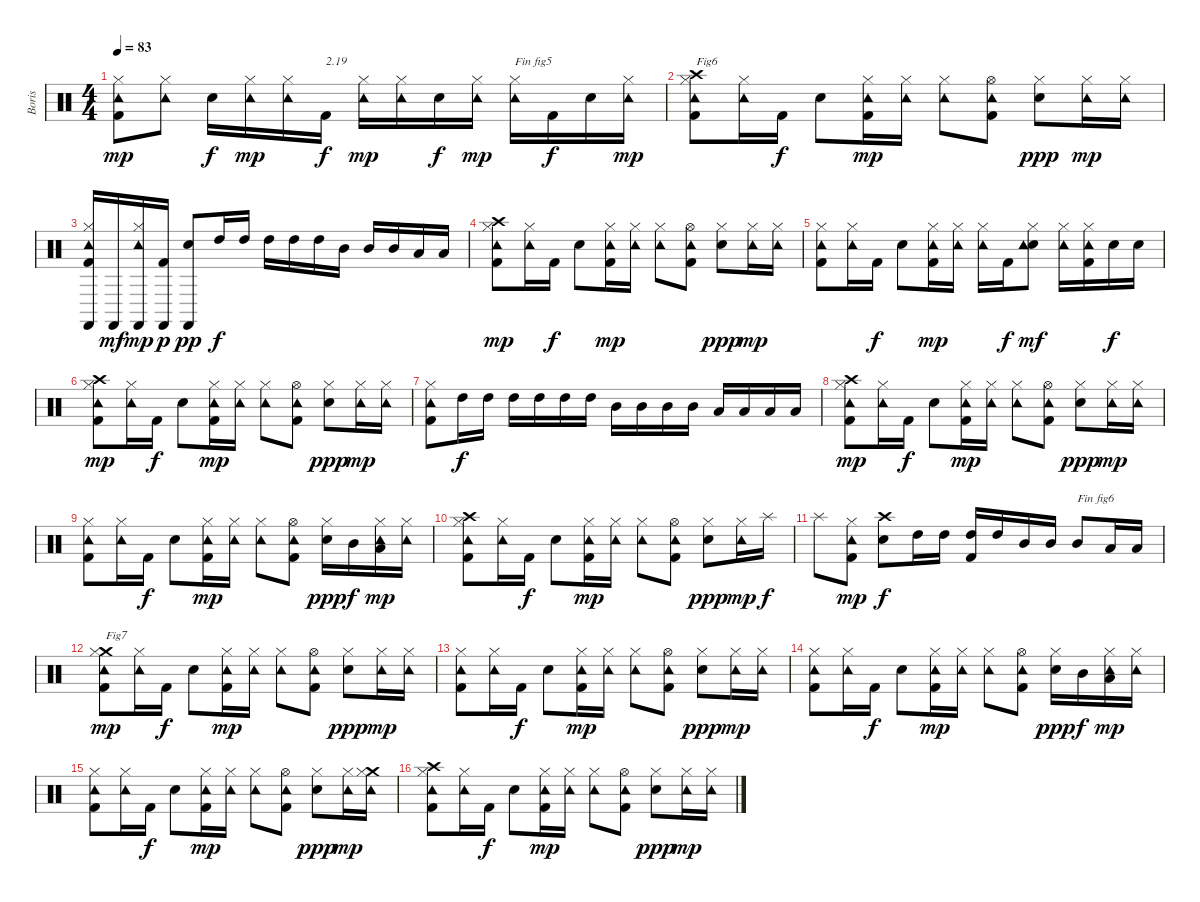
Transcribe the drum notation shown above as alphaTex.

\track ("Boris" "Boris") {instrument percussion}
\staff {score}
\articulation defaults
\ts (4 4)
\tempo 83
\clef neutral
\ks c
("Kick (hit) 2" "Tambourine (hit)" "Hi-Hat (closed)").8{dy mp} ("Tambourine (hit)" "Hi-Hat (closed)").8 "Electric Snare (hit)".16{dy f} ("Tambourine (hit)" "Hi-Hat (closed)").16{dy mp} ("Tambourine (hit)" "Hi-Hat (closed)").16 "Kick (hit) 2".16{txt "2.19" dy f} ("Tambourine (hit)" "Hi-Hat (closed)").16{dy mp} ("Tambourine (hit)" "Hi-Hat (closed)").16 "Electric Snare (hit)".16{dy f} ("Tambourine (hit)" "Hi-Hat (closed)").16{dy mp} ("Tambourine (hit)" "Hi-Hat (closed)").16{txt "Fin fig5"} "Kick (hit) 2".16{dy f} "Electric Snare (hit)".16 ("Tambourine (hit)" "Hi-Hat (closed)").16{dy mp} |
("Kick (hit) 2" "Crash high (hit)" "Tambourine (hit)" "Hi-Hat (closed)").8{txt "Fig6"} ("Tambourine (hit)" "Hi-Hat (closed)").16 "Kick (hit) 2".16{dy f} "Electric Snare (hit)".8 ("Kick (hit) 2" "Tambourine (hit)" "Hi-Hat (closed)").16{dy mp} ("Tambourine (hit)" "Hi-Hat (closed)").16 ("Tambourine (hit)" "Hi-Hat (closed)").8 ("Kick (hit) 2" "Tambourine (hit)" "Hi-Hat (open)").8 ("Electric Snare (hit)" "Hi-Hat (closed)").8{dy ppp} ("Tambourine (hit)" "Hi-Hat (closed)").16{dy mp} ("Tambourine (hit)" "Hi-Hat (closed)").16 |
("Kick (hit) 2" "Castanets (hit)" "Tambourine (hit)" "Hi-Hat (closed)").16 "Castanets (hit)".16{dy mf} ("Castanets (hit)" "Tambourine (hit)" "Hi-Hat (closed)").16{dy mp} ("Kick (hit) 2" "Castanets (hit)").16{dy p} ("Electric Snare (hit)" "Castanets (hit)").8{dy pp} "High Tom (hit)".16{dy f} "High Tom (hit)".16 "High Tom (hit)".16 "High Tom (hit)".16 "High Tom (hit)".16 "Mid Tom (hit)".16 "Mid Tom (hit)".16 "Mid Tom (hit)".16 "Low Tom (hit)".16 "Low Tom (hit)".16 |
("Kick (hit) 2" "Crash high (hit)" "Tambourine (hit)" "Hi-Hat (closed)").8{dy mp} ("Tambourine (hit)" "Hi-Hat (closed)").16 "Kick (hit) 2".16{dy f} "Electric Snare (hit)".8 ("Kick (hit) 2" "Tambourine (hit)" "Hi-Hat (closed)").16{dy mp} ("Tambourine (hit)" "Hi-Hat (closed)").16 ("Tambourine (hit)" "Hi-Hat (closed)").8 ("Kick (hit) 2" "Tambourine (hit)" "Hi-Hat (open)").8 ("Electric Snare (hit)" "Hi-Hat (closed)").8{dy ppp} ("Tambourine (hit)" "Hi-Hat (closed)").16{dy mp} ("Tambourine (hit)" "Hi-Hat (closed)").16 |
("Kick (hit) 2" "Tambourine (hit)" "Hi-Hat (closed)").8 ("Tambourine (hit)" "Hi-Hat (closed)").16 "Kick (hit) 2".16{dy f} "Electric Snare (hit)".8 ("Kick (hit) 2" "Tambourine (hit)" "Hi-Hat (closed)").16{dy mp} ("Tambourine (hit)" "Hi-Hat (closed)").16 ("Tambourine (hit)" "Hi-Hat (closed)").16 "Kick (hit) 2".16{dy f} ("Electric Snare (hit)" "Tambourine (hit)" "Hi-Hat (closed)").8{dy mf} ("Tambourine (hit)" "Hi-Hat (closed)").16 ("Kick (hit) 2" "Tambourine (hit)" "Hi-Hat (closed)").16 "Electric Snare (hit)".16{dy f} "Electric Snare (hit)".16 |
("Kick (hit) 2" "Crash high (hit)" "Tambourine (hit)" "Hi-Hat (closed)").8{dy mp} ("Tambourine (hit)" "Hi-Hat (closed)").16 "Kick (hit) 2".16{dy f} "Electric Snare (hit)".8 ("Kick (hit) 2" "Tambourine (hit)" "Hi-Hat (closed)").16{dy mp} ("Tambourine (hit)" "Hi-Hat (closed)").16 ("Tambourine (hit)" "Hi-Hat (closed)").8 ("Kick (hit) 2" "Tambourine (hit)" "Hi-Hat (open)").8 ("Electric Snare (hit)" "Hi-Hat (closed)").8{dy ppp} ("Tambourine (hit)" "Hi-Hat (closed)").16{dy mp} ("Tambourine (hit)" "Hi-Hat (closed)").16 |
("Kick (hit) 2" "Tambourine (hit)" "Hi-Hat (closed)").8 "High Tom (hit)".16{dy f} "High Tom (hit)".16 "High Tom (hit)".16 "High Tom (hit)".16 "High Tom (hit)".16 "High Tom (hit)".16 "Mid Tom (hit)".16 "Mid Tom (hit)".16 "Mid Tom (hit)".16 "Mid Tom (hit)".16 "Low Tom (hit)".16 "Low Tom (hit)".16 "Low Tom (hit)".16 "Low Tom (hit)".16 |
("Kick (hit) 2" "Crash high (hit)" "Tambourine (hit)" "Hi-Hat (closed)").8{dy mp} ("Tambourine (hit)" "Hi-Hat (closed)").16 "Kick (hit) 2".16{dy f} "Electric Snare (hit)".8 ("Kick (hit) 2" "Tambourine (hit)" "Hi-Hat (closed)").16{dy mp} ("Tambourine (hit)" "Hi-Hat (closed)").16 ("Tambourine (hit)" "Hi-Hat (closed)").8 ("Kick (hit) 2" "Tambourine (hit)" "Hi-Hat (open)").8 ("Electric Snare (hit)" "Hi-Hat (closed)").8{dy ppp} ("Tambourine (hit)" "Hi-Hat (closed)").16{dy mp} ("Tambourine (hit)" "Hi-Hat (closed)").16 |
("Kick (hit) 2" "Tambourine (hit)" "Hi-Hat (closed)").8 ("Tambourine (hit)" "Hi-Hat (closed)").16 "Kick (hit) 2".16{dy f} "Electric Snare (hit)".8 ("Kick (hit) 2" "Tambourine (hit)" "Hi-Hat (closed)").16{dy mp} ("Tambourine (hit)" "Hi-Hat (closed)").16 ("Tambourine (hit)" "Hi-Hat (closed)").8 ("Kick (hit) 2" "Tambourine (hit)" "Hi-Hat (open)").8 ("Electric Snare (hit)" "Hi-Hat (closed)").16{dy ppp} "Mid Tom (hit)".16{dy f} ("Low Tom (hit)" "Tambourine (hit)" "Hi-Hat (closed)").16{dy mp} ("Tambourine (hit)" "Hi-Hat (closed)").16 |
("Kick (hit) 2" "Crash high (hit)" "Tambourine (hit)" "Hi-Hat (closed)").8 ("Tambourine (hit)" "Hi-Hat (closed)").16 "Kick (hit) 2".16{dy f} "Electric Snare (hit)".8 ("Kick (hit) 2" "Tambourine (hit)" "Hi-Hat (closed)").16{dy mp} ("Tambourine (hit)" "Hi-Hat (closed)").16 ("Tambourine (hit)" "Hi-Hat (closed)").8 ("Kick (hit) 2" "Tambourine (hit)" "Hi-Hat (open)").8 ("Electric Snare (hit)" "Hi-Hat (closed)").8{dy ppp} ("Tambourine (hit)" "Hi-Hat (closed)").16{dy mp} "Splash (hit)".16{dy f} |
"Splash (hit)".8 ("Kick (hit) 2" "Tambourine (hit)" "Hi-Hat (closed)").8{dy mp} ("Electric Snare (hit)" "Crash high (hit)").8{dy f} "High Tom (hit)".16 "High Tom (hit)".16 ("Kick (hit) 2" "High Tom (hit)").16 "High Tom (hit)".16 "Mid Tom (hit)".16 "Mid Tom (hit)".16 "Mid Tom (hit)".8{txt "Fin fig6"} "Low Tom (hit)".16 "Low Tom (hit)".16 |
("Kick (hit) 2" "Crash medium (hit)" "Tambourine (hit)" "Hi-Hat (closed)").8{txt "Fig7" dy mp} ("Tambourine (hit)" "Hi-Hat (closed)").16 "Kick (hit) 2".16{dy f} "Electric Snare (hit)".8 ("Kick (hit) 2" "Tambourine (hit)" "Hi-Hat (closed)").16{dy mp} ("Tambourine (hit)" "Hi-Hat (closed)").16 ("Tambourine (hit)" "Hi-Hat (closed)").8 ("Kick (hit) 2" "Tambourine (hit)" "Hi-Hat (open)").8 ("Electric Snare (hit)" "Hi-Hat (closed)").8{dy ppp} ("Tambourine (hit)" "Hi-Hat (closed)").16{dy mp} ("Tambourine (hit)" "Hi-Hat (closed)").16 |
("Kick (hit) 2" "Tambourine (hit)" "Hi-Hat (closed)").8 ("Tambourine (hit)" "Hi-Hat (closed)").16 "Kick (hit) 2".16{dy f} "Electric Snare (hit)".8 ("Kick (hit) 2" "Tambourine (hit)" "Hi-Hat (closed)").16{dy mp} ("Tambourine (hit)" "Hi-Hat (closed)").16 ("Tambourine (hit)" "Hi-Hat (closed)").8 ("Kick (hit) 2" "Tambourine (hit)" "Hi-Hat (open)").8 ("Electric Snare (hit)" "Hi-Hat (closed)").8{dy ppp} ("Tambourine (hit)" "Hi-Hat (closed)").16{dy mp} ("Tambourine (hit)" "Hi-Hat (closed)").16 |
("Kick (hit) 2" "Tambourine (hit)" "Hi-Hat (closed)").8 ("Tambourine (hit)" "Hi-Hat (closed)").16 "Kick (hit) 2".16{dy f} "Electric Snare (hit)".8 ("Kick (hit) 2" "Tambourine (hit)" "Hi-Hat (closed)").16{dy mp} ("Tambourine (hit)" "Hi-Hat (closed)").16 ("Tambourine (hit)" "Hi-Hat (closed)").8 ("Kick (hit) 2" "Tambourine (hit)" "Hi-Hat (open)").8 ("Electric Snare (hit)" "Hi-Hat (closed)").16{dy ppp} "Mid Tom (hit)".16{dy f} ("Low Tom (hit)" "Tambourine (hit)" "Hi-Hat (closed)").16{dy mp} ("Tambourine (hit)" "Hi-Hat (closed)").16 |
("Kick (hit) 2" "Tambourine (hit)" "Hi-Hat (closed)").8 ("Tambourine (hit)" "Hi-Hat (closed)").16 "Kick (hit) 2".16{dy f} "Electric Snare (hit)".8 ("Kick (hit) 2" "Tambourine (hit)" "Hi-Hat (closed)").16{dy mp} ("Tambourine (hit)" "Hi-Hat (closed)").16 ("Tambourine (hit)" "Hi-Hat (closed)").8 ("Kick (hit) 2" "Tambourine (hit)" "Hi-Hat (open)").8 ("Electric Snare (hit)" "Hi-Hat (closed)").8{dy ppp} ("Tambourine (hit)" "Hi-Hat (closed)").16{dy mp} ("Crash medium (hit)" "Tambourine (hit)" "Hi-Hat (closed)").16 |
("Kick (hit) 2" "Crash high (hit)" "Tambourine (hit)" "Hi-Hat (closed)").8 ("Tambourine (hit)" "Hi-Hat (closed)").16 "Kick (hit) 2".16{dy f} "Electric Snare (hit)".8 ("Kick (hit) 2" "Tambourine (hit)" "Hi-Hat (closed)").16{dy mp} ("Tambourine (hit)" "Hi-Hat (closed)").16 ("Tambourine (hit)" "Hi-Hat (closed)").8 ("Kick (hit) 2" "Tambourine (hit)" "Hi-Hat (open)").8 ("Electric Snare (hit)" "Hi-Hat (closed)").8{dy ppp} ("Tambourine (hit)" "Hi-Hat (closed)").16{dy mp} ("Tambourine (hit)" "Hi-Hat (closed)").16
